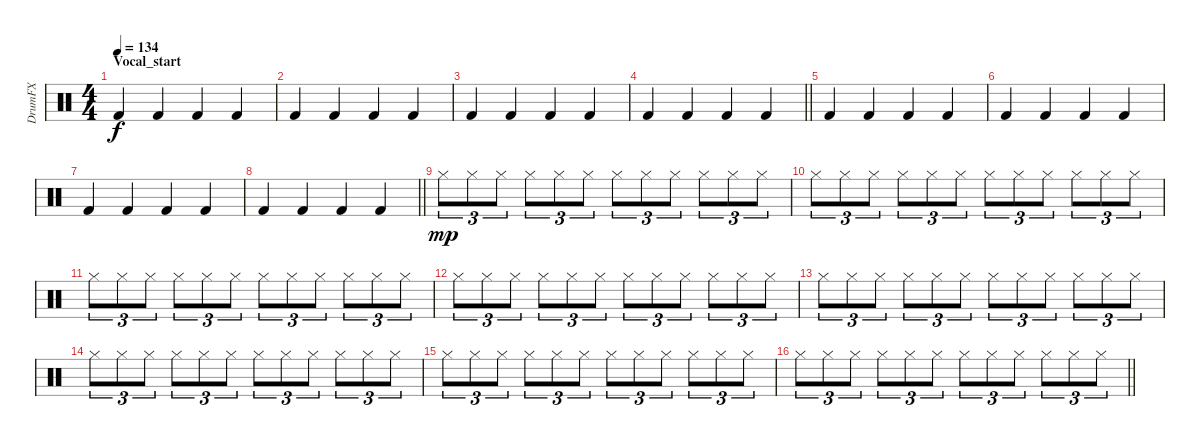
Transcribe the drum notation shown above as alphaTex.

\track ("DrumFX" "DrumFX") {instrument percussion}
\staff {score}
\articulation defaults
\ts (4 4)
\section ("" "Vocal_start")
\tempo 134
\clef neutral
\ks c "Kick (hit) 2".4{dy f} "Kick (hit) 2".4 "Kick (hit) 2".4 "Kick (hit) 2".4
|
"Kick (hit) 2".4 "Kick (hit) 2".4 "Kick (hit) 2".4 "Kick (hit) 2".4 |
"Kick (hit) 2".4 "Kick (hit) 2".4 "Kick (hit) 2".4 "Kick (hit) 2".4 |
\barLineRight lightlight "Kick (hit) 2".4 "Kick (hit) 2".4 "Kick (hit) 2".4 "Kick (hit) 2".4
|
"Kick (hit) 2".4 "Kick (hit) 2".4 "Kick (hit) 2".4 "Kick (hit) 2".4 |
"Kick (hit) 2".4 "Kick (hit) 2".4 "Kick (hit) 2".4 "Kick (hit) 2".4 |
"Kick (hit) 2".4 "Kick (hit) 2".4 "Kick (hit) 2".4 "Kick (hit) 2".4 |
\barLineRight lightlight "Kick (hit) 2".4 "Kick (hit) 2".4 "Kick (hit) 2".4 "Kick (hit) 2".4
|
\section ("" "")
"Hi-Hat (closed)".8{tu (3 2) dy mp} "Hi-Hat (closed)".8{tu (3 2)} "Hi-Hat (closed)".8{tu (3 2)} "Hi-Hat (closed)".8{tu (3 2)} "Hi-Hat (closed)".8{tu (3 2)} "Hi-Hat (closed)".8{tu (3 2)} "Hi-Hat (closed)".8{tu (3 2)} "Hi-Hat (closed)".8{tu (3 2)} "Hi-Hat (closed)".8{tu (3 2)} "Hi-Hat (closed)".8{tu (3 2)} "Hi-Hat (closed)".8{tu (3 2)} "Hi-Hat (closed)".8{tu (3 2)} |
"Hi-Hat (closed)".8{tu (3 2)} "Hi-Hat (closed)".8{tu (3 2)} "Hi-Hat (closed)".8{tu (3 2)} "Hi-Hat (closed)".8{tu (3 2)} "Hi-Hat (closed)".8{tu (3 2)} "Hi-Hat (closed)".8{tu (3 2)} "Hi-Hat (closed)".8{tu (3 2)} "Hi-Hat (closed)".8{tu (3 2)} "Hi-Hat (closed)".8{tu (3 2)} "Hi-Hat (closed)".8{tu (3 2)} "Hi-Hat (closed)".8{tu (3 2)} "Hi-Hat (closed)".8{tu (3 2)} |
"Hi-Hat (closed)".8{tu (3 2)} "Hi-Hat (closed)".8{tu (3 2)} "Hi-Hat (closed)".8{tu (3 2)} "Hi-Hat (closed)".8{tu (3 2)} "Hi-Hat (closed)".8{tu (3 2)} "Hi-Hat (closed)".8{tu (3 2)} "Hi-Hat (closed)".8{tu (3 2)} "Hi-Hat (closed)".8{tu (3 2)} "Hi-Hat (closed)".8{tu (3 2)} "Hi-Hat (closed)".8{tu (3 2)} "Hi-Hat (closed)".8{tu (3 2)} "Hi-Hat (closed)".8{tu (3 2)} |
"Hi-Hat (closed)".8{tu (3 2)} "Hi-Hat (closed)".8{tu (3 2)} "Hi-Hat (closed)".8{tu (3 2)} "Hi-Hat (closed)".8{tu (3 2)} "Hi-Hat (closed)".8{tu (3 2)} "Hi-Hat (closed)".8{tu (3 2)} "Hi-Hat (closed)".8{tu (3 2)} "Hi-Hat (closed)".8{tu (3 2)} "Hi-Hat (closed)".8{tu (3 2)} "Hi-Hat (closed)".8{tu (3 2)} "Hi-Hat (closed)".8{tu (3 2)} "Hi-Hat (closed)".8{tu (3 2)} |
"Hi-Hat (closed)".8{tu (3 2)} "Hi-Hat (closed)".8{tu (3 2)} "Hi-Hat (closed)".8{tu (3 2)} "Hi-Hat (closed)".8{tu (3 2)} "Hi-Hat (closed)".8{tu (3 2)} "Hi-Hat (closed)".8{tu (3 2)} "Hi-Hat (closed)".8{tu (3 2)} "Hi-Hat (closed)".8{tu (3 2)} "Hi-Hat (closed)".8{tu (3 2)} "Hi-Hat (closed)".8{tu (3 2)} "Hi-Hat (closed)".8{tu (3 2)} "Hi-Hat (closed)".8{tu (3 2)} |
"Hi-Hat (closed)".8{tu (3 2)} "Hi-Hat (closed)".8{tu (3 2)} "Hi-Hat (closed)".8{tu (3 2)} "Hi-Hat (closed)".8{tu (3 2)} "Hi-Hat (closed)".8{tu (3 2)} "Hi-Hat (closed)".8{tu (3 2)} "Hi-Hat (closed)".8{tu (3 2)} "Hi-Hat (closed)".8{tu (3 2)} "Hi-Hat (closed)".8{tu (3 2)} "Hi-Hat (closed)".8{tu (3 2)} "Hi-Hat (closed)".8{tu (3 2)} "Hi-Hat (closed)".8{tu (3 2)} |
"Hi-Hat (closed)".8{tu (3 2)} "Hi-Hat (closed)".8{tu (3 2)} "Hi-Hat (closed)".8{tu (3 2)} "Hi-Hat (closed)".8{tu (3 2)} "Hi-Hat (closed)".8{tu (3 2)} "Hi-Hat (closed)".8{tu (3 2)} "Hi-Hat (closed)".8{tu (3 2)} "Hi-Hat (closed)".8{tu (3 2)} "Hi-Hat (closed)".8{tu (3 2)} "Hi-Hat (closed)".8{tu (3 2)} "Hi-Hat (closed)".8{tu (3 2)} "Hi-Hat (closed)".8{tu (3 2)} |
\barLineRight lightlight "Hi-Hat (closed)".8{tu (3 2)} "Hi-Hat (closed)".8{tu (3 2)} "Hi-Hat (closed)".8{tu (3 2)} "Hi-Hat (closed)".8{tu (3 2)} "Hi-Hat (closed)".8{tu (3 2)} "Hi-Hat (closed)".8{tu (3 2)} "Hi-Hat (closed)".8{tu (3 2)} "Hi-Hat (closed)".8{tu (3 2)} "Hi-Hat (closed)".8{tu (3 2)} "Hi-Hat (closed)".8{tu (3 2)} "Hi-Hat (closed)".8{tu (3 2)} "Hi-Hat (closed)".8{tu (3 2)}
